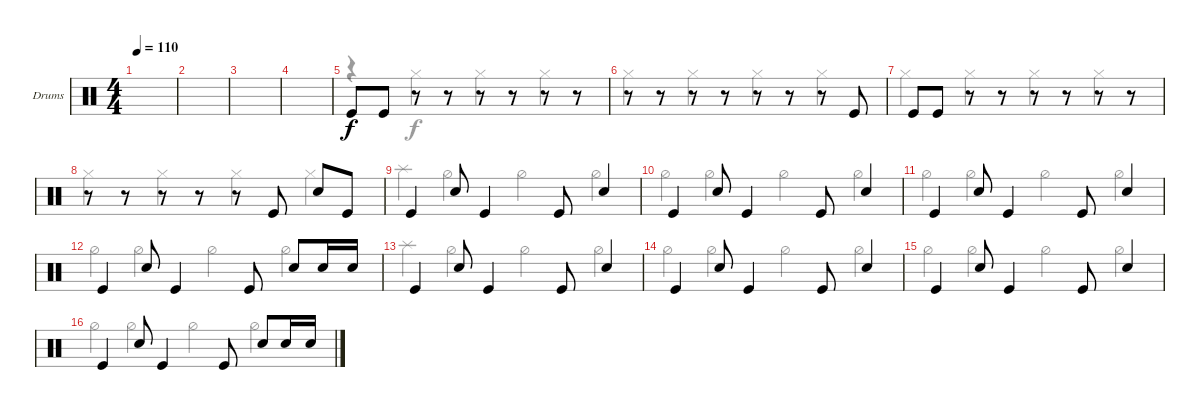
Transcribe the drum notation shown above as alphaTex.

\defaultSystemsLayout 4
\bracketExtendMode groupsimilarinstruments
\firstSystemTrackNameOrientation horizontal
\otherSystemsTrackNameOrientation horizontal
\track ("Drumkit" "Drums") {instrument percussion}
\staff {score}
\articulation defaults
\voice
\ts (4 4)
\tempo 110
\clef neutral
\scale
0.472222
\ks c
|
\scale
0.263889 |
\scale
0.263889 |
\scale
0.333333 |
\scale
0.333333 "Kick (hit)".8 "Kick (hit)".8 r.8 r.8 r.8 r.8 r.8 r.8 |
\scale
0.333333 r.8 r.8 r.8 r.8 r.8 r.8 r.8 "Kick (hit)".8 |
\scale
0.333333 "Kick (hit)".8 "Kick (hit)".8 r.8 r.8 r.8 r.8 r.8 r.8 |
\scale
0.333333 r.8 r.8 r.8 r.8 r.8 "Kick (hit)".8 "Snare (hit) 2".8 "Kick (hit)".8 |
\scale
0.333333 "Kick (hit)".4 "Snare (hit) 2".8 "Kick (hit)".4 "Kick (hit)".8 "Snare (hit) 2".4 |
\scale
0.333333 "Kick (hit)".4 "Snare (hit) 2".8 "Kick (hit)".4 "Kick (hit)".8 "Snare (hit) 2".4 |
\scale
0.333333 "Kick (hit)".4 "Snare (hit) 2".8 "Kick (hit)".4 "Kick (hit)".8 "Snare (hit) 2".4 |
\scale
0.333333 "Kick (hit)".4 "Snare (hit) 2".8 "Kick (hit)".4 "Kick (hit)".8 "Snare (hit) 2".8 "Snare (hit) 2".16 "Snare (hit) 2".16 |
\scale
0.333333 "Kick (hit)".4 "Snare (hit) 2".8 "Kick (hit)".4 "Kick (hit)".8 "Snare (hit) 2".4 |
\scale
0.333333 "Kick (hit)".4 "Snare (hit) 2".8 "Kick (hit)".4 "Kick (hit)".8 "Snare (hit) 2".4 |
\scale
0.333333 "Kick (hit)".4 "Snare (hit) 2".8 "Kick (hit)".4 "Kick (hit)".8 "Snare (hit) 2".4 |
\scale
0.333333 "Kick (hit)".4 "Snare (hit) 2".8 "Kick (hit)".4 "Kick (hit)".8 "Snare (hit) 2".8 "Snare (hit) 2".16 "Snare (hit) 2".16
\voice
\clef neutral
\ottava regular
\simile none
\scale
0.472222
\ks c
|
\scale
0.263889 |
\scale
0.263889 |
\scale
0.333333 |
\scale
0.333333 r.4 "Hi-Hat (closed)".4 "Hi-Hat (closed)".4 "Hi-Hat (closed)".4 |
\scale
0.333333 "Hi-Hat (closed)".4 "Hi-Hat (closed)".4 "Hi-Hat (closed)".4 "Hi-Hat (closed)".4 |
\scale
0.333333 "Hi-Hat (closed)".4 "Hi-Hat (closed)".4 "Hi-Hat (closed)".4 "Hi-Hat (closed)".4 |
\scale
0.333333 "Hi-Hat (closed)".4 "Hi-Hat (closed)".4 "Hi-Hat (closed)".4 "Hi-Hat (closed)".4 |
\scale
0.333333 "Splash (hit)".4 "Hi-Hat (half)".4 "Hi-Hat (half)".4 "Hi-Hat (half)".4 |
\scale
0.333333 "Hi-Hat (half)".4 "Hi-Hat (half)".4 "Hi-Hat (half)".4 "Hi-Hat (half)".4 |
\scale
0.333333 "Hi-Hat (half)".4 "Hi-Hat (half)".4 "Hi-Hat (half)".4 "Hi-Hat (half)".4 |
\scale
0.333333 "Hi-Hat (half)".4 "Hi-Hat (half)".4 "Hi-Hat (half)".4 "Hi-Hat (half)".4 |
\scale
0.333333 "Splash (hit)".4 "Hi-Hat (half)".4 "Hi-Hat (half)".4 "Hi-Hat (half)".4 |
\scale
0.333333 "Hi-Hat (half)".4 "Hi-Hat (half)".4 "Hi-Hat (half)".4 "Hi-Hat (half)".4 |
\scale
0.333333 "Hi-Hat (half)".4 "Hi-Hat (half)".4 "Hi-Hat (half)".4 "Hi-Hat (half)".4 |
\scale
0.333333 "Hi-Hat (half)".4 "Hi-Hat (half)".4 "Hi-Hat (half)".4 "Hi-Hat (half)".4
